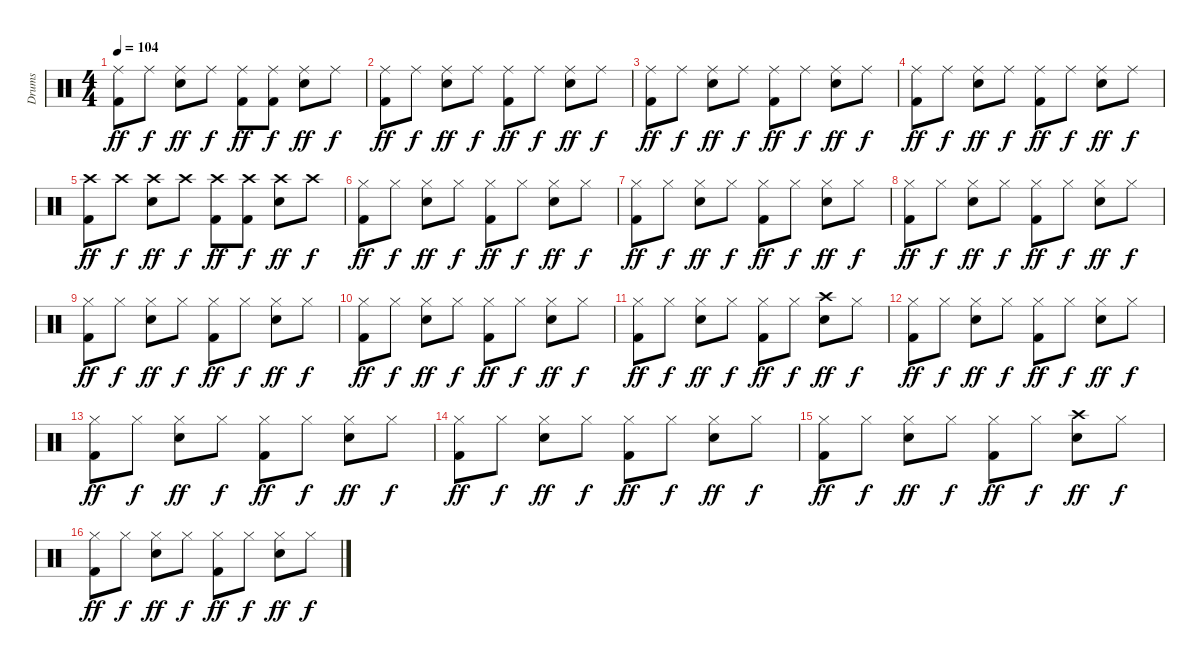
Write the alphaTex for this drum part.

\track ("Drums" "Drums") {instrument percussion}
\staff {score}
\articulation defaults
\ts (4 4)
\tempo 104
\clef neutral
\ks c
("Ride (middle)" "Kick (hit) 2").8{dy ff} "Ride (middle)".8{dy f} ("Ride (middle)" "Snare (hit) 2").8{dy ff} "Ride (middle)".8{dy f} ("Ride (middle)" "Kick (hit) 2").8{dy ff} ("Ride (middle)" "Kick (hit) 2").8{dy f} ("Ride (middle)" "Snare (hit) 2").8{dy ff} "Ride (middle)".8{dy f} |
("Ride (middle)" "Kick (hit) 2").8{dy ff} "Ride (middle)".8{dy f} ("Ride (middle)" "Snare (hit) 2").8{dy ff} "Ride (middle)".8{dy f} ("Ride (middle)" "Kick (hit) 2").8{dy ff} "Ride (middle)".8{dy f} ("Ride (middle)" "Snare (hit) 2").8{dy ff} "Ride (middle)".8{dy f} |
("Ride (middle)" "Kick (hit) 2").8{dy ff} "Ride (middle)".8{dy f} ("Ride (middle)" "Snare (hit) 2").8{dy ff} "Ride (middle)".8{dy f} ("Ride (middle)" "Kick (hit) 2").8{dy ff} "Ride (middle)".8{dy f} ("Ride (middle)" "Snare (hit) 2").8{dy ff} "Ride (middle)".8{dy f} |
("Ride (middle)" "Kick (hit) 2").8{dy ff} "Ride (middle)".8{dy f} ("Ride (middle)" "Snare (hit) 2").8{dy ff} "Ride (middle)".8{dy f} ("Ride (middle)" "Kick (hit) 2").8{dy ff} "Ride (middle)".8{dy f} ("Ride (middle)" "Snare (hit) 2").8{dy ff} "Ride (middle)".8{dy f} |
("Crash high (hit)" "Kick (hit) 2").8{dy ff} "Crash high (hit)".8{dy f} ("Crash high (hit)" "Snare (hit) 2").8{dy ff} "Crash high (hit)".8{dy f} ("Crash high (hit)" "Kick (hit) 2").8{dy ff} ("Crash high (hit)" "Kick (hit) 2").8{dy f} ("Crash high (hit)" "Snare (hit) 2").8{dy ff} "Crash high (hit)".8{dy f} |
("Hi-Hat (closed)" "Kick (hit) 2").8{dy ff} "Hi-Hat (closed)".8{dy f} ("Hi-Hat (closed)" "Snare (hit) 2").8{dy ff} "Hi-Hat (closed)".8{dy f} ("Hi-Hat (closed)" "Kick (hit) 2").8{dy ff} "Hi-Hat (closed)".8{dy f} ("Hi-Hat (closed)" "Snare (hit) 2").8{dy ff} "Hi-Hat (closed)".8{dy f} |
("Hi-Hat (closed)" "Kick (hit) 2").8{dy ff} "Hi-Hat (closed)".8{dy f} ("Hi-Hat (closed)" "Snare (hit) 2").8{dy ff} "Hi-Hat (closed)".8{dy f} ("Hi-Hat (closed)" "Kick (hit) 2").8{dy ff} "Hi-Hat (closed)".8{dy f} ("Hi-Hat (closed)" "Snare (hit) 2").8{dy ff} "Hi-Hat (closed)".8{dy f} |
("Hi-Hat (closed)" "Kick (hit) 2").8{dy ff} "Hi-Hat (closed)".8{dy f} ("Hi-Hat (closed)" "Snare (hit) 2").8{dy ff} "Hi-Hat (closed)".8{dy f} ("Hi-Hat (closed)" "Kick (hit) 2").8{dy ff} "Hi-Hat (closed)".8{dy f} ("Hi-Hat (closed)" "Snare (hit) 2").8{dy ff} "Hi-Hat (closed)".8{dy f} |
("Hi-Hat (closed)" "Kick (hit) 2").8{dy ff} "Hi-Hat (closed)".8{dy f} ("Hi-Hat (closed)" "Snare (hit) 2").8{dy ff} "Hi-Hat (closed)".8{dy f} ("Hi-Hat (closed)" "Kick (hit) 2").8{dy ff} "Hi-Hat (closed)".8{dy f} ("Hi-Hat (closed)" "Snare (hit) 2").8{dy ff} "Hi-Hat (closed)".8{dy f} |
("Hi-Hat (closed)" "Kick (hit) 2").8{dy ff} "Hi-Hat (closed)".8{dy f} ("Hi-Hat (closed)" "Snare (hit) 2").8{dy ff} "Hi-Hat (closed)".8{dy f} ("Hi-Hat (closed)" "Kick (hit) 2").8{dy ff} "Hi-Hat (closed)".8{dy f} ("Hi-Hat (closed)" "Snare (hit) 2").8{dy ff} "Hi-Hat (closed)".8{dy f} |
("Hi-Hat (closed)" "Kick (hit) 2").8{dy ff} "Hi-Hat (closed)".8{dy f} ("Hi-Hat (closed)" "Snare (hit) 2").8{dy ff} "Hi-Hat (closed)".8{dy f} ("Hi-Hat (closed)" "Kick (hit) 2").8{dy ff} "Hi-Hat (closed)".8{dy f} ("Crash high (hit)" "Snare (hit) 2").8{dy ff} "Hi-Hat (closed)".8{dy f} |
("Hi-Hat (closed)" "Kick (hit) 2").8{dy ff} "Hi-Hat (closed)".8{dy f} ("Hi-Hat (closed)" "Snare (hit) 2").8{dy ff} "Hi-Hat (closed)".8{dy f} ("Hi-Hat (closed)" "Kick (hit) 2").8{dy ff} "Hi-Hat (closed)".8{dy f} ("Hi-Hat (closed)" "Snare (hit) 2").8{dy ff} "Hi-Hat (closed)".8{dy f} |
("Hi-Hat (closed)" "Kick (hit) 2").8{dy ff} "Hi-Hat (closed)".8{dy f} ("Hi-Hat (closed)" "Snare (hit) 2").8{dy ff} "Hi-Hat (closed)".8{dy f} ("Hi-Hat (closed)" "Kick (hit) 2").8{dy ff} "Hi-Hat (closed)".8{dy f} ("Hi-Hat (closed)" "Snare (hit) 2").8{dy ff} "Hi-Hat (closed)".8{dy f} |
("Hi-Hat (closed)" "Kick (hit) 2").8{dy ff} "Hi-Hat (closed)".8{dy f} ("Hi-Hat (closed)" "Snare (hit) 2").8{dy ff} "Hi-Hat (closed)".8{dy f} ("Hi-Hat (closed)" "Kick (hit) 2").8{dy ff} "Hi-Hat (closed)".8{dy f} ("Hi-Hat (closed)" "Snare (hit) 2").8{dy ff} "Hi-Hat (closed)".8{dy f} |
("Hi-Hat (closed)" "Kick (hit) 2").8{dy ff} "Hi-Hat (closed)".8{dy f} ("Hi-Hat (closed)" "Snare (hit) 2").8{dy ff} "Hi-Hat (closed)".8{dy f} ("Hi-Hat (closed)" "Kick (hit) 2").8{dy ff} "Hi-Hat (closed)".8{dy f} ("Crash high (hit)" "Snare (hit) 2").8{dy ff} "Hi-Hat (closed)".8{dy f} |
("Hi-Hat (closed)" "Kick (hit) 2").8{dy ff} "Hi-Hat (closed)".8{dy f} ("Hi-Hat (closed)" "Snare (hit) 2").8{dy ff} "Hi-Hat (closed)".8{dy f} ("Hi-Hat (closed)" "Kick (hit) 2").8{dy ff} "Hi-Hat (closed)".8{dy f} ("Hi-Hat (closed)" "Snare (hit) 2").8{dy ff} "Hi-Hat (closed)".8{dy f}
